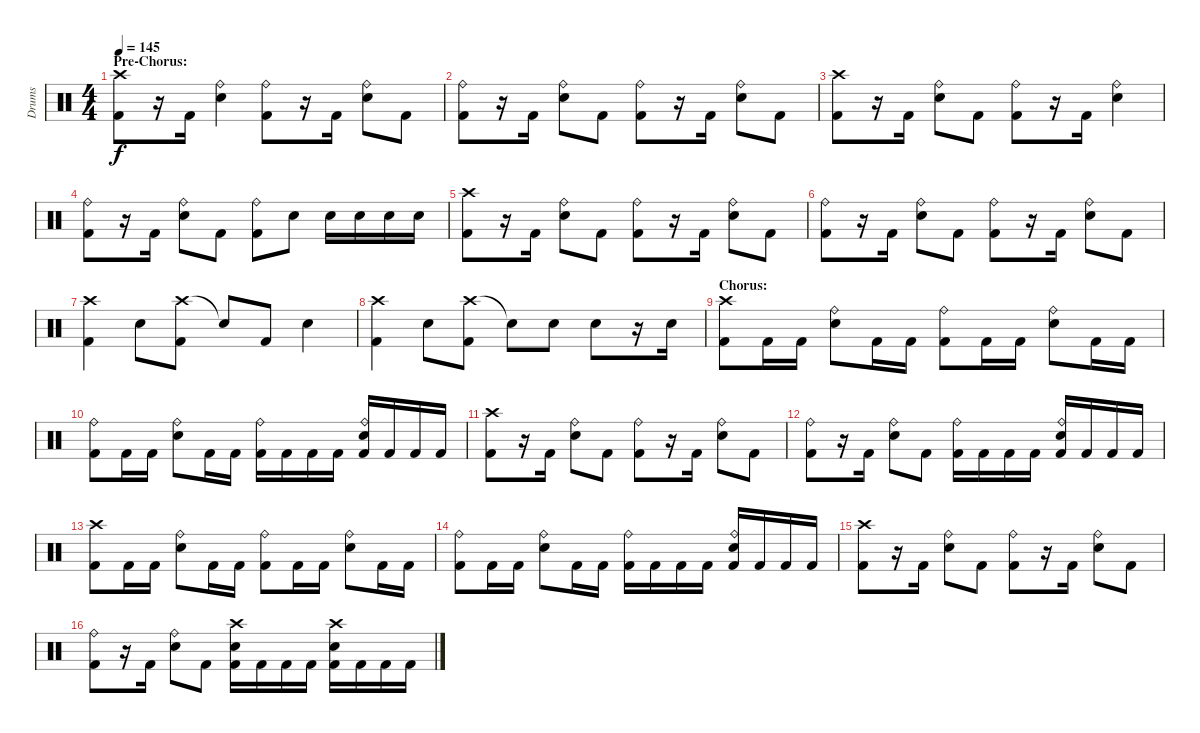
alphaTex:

\track ("Drums" "Drums") {instrument percussion}
\staff {score}
\articulation defaults
\ts (4 4)
\section ("" "Pre-Chorus:")
\tempo 145
\clef neutral
\ks c
("Crash high (hit)" "Kick (hit) 2").8{dy f} r.16 "Kick (hit) 2".16 ("Ride (bell)" "Snare (hit) 2").4 ("Ride (bell)" "Kick (hit) 2").8 r.16 "Kick (hit) 2".16 ("Ride (bell)" "Snare (hit) 2").8 "Kick (hit) 2".8 |
("Ride (bell)" "Kick (hit) 2").8 r.16 "Kick (hit) 2".16 ("Ride (bell)" "Snare (hit) 2").8 "Kick (hit) 2".8 ("Ride (bell)" "Kick (hit) 2").8 r.16 "Kick (hit) 2".16 ("Ride (bell)" "Snare (hit) 2").8 "Kick (hit) 2".8 |
("Crash high (hit)" "Kick (hit) 2").8 r.16 "Kick (hit) 2".16 ("Ride (bell)" "Snare (hit) 2").8 "Kick (hit) 2".8 ("Ride (bell)" "Kick (hit) 2").8 r.16 "Kick (hit) 2".16 ("Ride (bell)" "Snare (hit) 2").4 |
("Ride (bell)" "Kick (hit) 2").8 r.16 "Kick (hit) 2".16 ("Ride (bell)" "Snare (hit) 2").8 "Kick (hit) 2".8 ("Ride (bell)" "Kick (hit) 2").8 "Snare (hit) 2".8 "Snare (hit) 2".16 "Snare (hit) 2".16 "Snare (hit) 2".16 "Snare (hit) 2".16 |
("Crash high (hit)" "Kick (hit) 2").8 r.16 "Kick (hit) 2".16 ("Ride (bell)" "Snare (hit) 2").8 "Kick (hit) 2".8 ("Ride (bell)" "Kick (hit) 2").8 r.16 "Kick (hit) 2".16 ("Ride (bell)" "Snare (hit) 2").8 "Kick (hit) 2".8 |
("Ride (bell)" "Kick (hit) 2").8 r.16 "Kick (hit) 2".16 ("Ride (bell)" "Snare (hit) 2").8 "Kick (hit) 2".8 ("Ride (bell)" "Kick (hit) 2").8 r.16 "Kick (hit) 2".16 ("Ride (bell)" "Snare (hit) 2").8 "Kick (hit) 2".8 |
("Crash high (hit)" "Kick (hit) 2").4 "Snare (hit) 2".8 ("Crash high (hit)" "Kick (hit) 2").8 "Snare (hit)"{t}.8 "Kick (hit) 2".8 "Snare (hit) 2".4 |
("Crash high (hit)" "Kick (hit) 2").4 "Snare (hit) 2".8 ("Crash high (hit)" "Kick (hit) 2").8 "Snare (hit)"{t}.8 "Snare (hit) 2".8 "Snare (hit) 2".8 r.16 "Snare (hit) 2".16 |
\section ("" "Chorus:")
("Crash high (hit)" "Kick (hit) 2").8 "Kick (hit) 2".16 "Kick (hit) 2".16 ("Ride (bell)" "Snare (hit) 2").8 "Kick (hit) 2".16 "Kick (hit) 2".16 ("Ride (bell)" "Kick (hit) 2").8 "Kick (hit) 2".16 "Kick (hit) 2".16 ("Ride (bell)" "Snare (hit) 2").8 "Kick (hit) 2".16 "Kick (hit) 2".16 |
("Ride (bell)" "Kick (hit) 2").8 "Kick (hit) 2".16 "Kick (hit) 2".16 ("Ride (bell)" "Snare (hit) 2").8 "Kick (hit) 2".16 "Kick (hit) 2".16 ("Ride (bell)" "Kick (hit) 2").16 "Kick (hit) 2".16 "Kick (hit) 2".16 "Kick (hit) 2".16 ("Ride (bell)" "Snare (hit) 2" "Kick (hit) 2").16 "Kick (hit) 2".16 "Kick (hit) 2".16 "Kick (hit) 2".16 |
("Crash high (hit)" "Kick (hit) 2").8 r.16 "Kick (hit) 2".16 ("Ride (bell)" "Snare (hit) 2").8 "Kick (hit) 2".8 ("Ride (bell)" "Kick (hit) 2").8 r.16 "Kick (hit) 2".16 ("Ride (bell)" "Snare (hit) 2").8 "Kick (hit) 2".8 |
("Ride (bell)" "Kick (hit) 2").8 r.16 "Kick (hit) 2".16 ("Ride (bell)" "Snare (hit) 2").8 "Kick (hit) 2".8 ("Ride (bell)" "Kick (hit) 2").16 "Kick (hit) 2".16 "Kick (hit) 2".16 "Kick (hit) 2".16 ("Ride (bell)" "Snare (hit) 2" "Kick (hit) 2").16 "Kick (hit) 2".16 "Kick (hit) 2".16 "Kick (hit) 2".16 |
("Crash high (hit)" "Kick (hit) 2").8 "Kick (hit) 2".16 "Kick (hit) 2".16 ("Ride (bell)" "Snare (hit) 2").8 "Kick (hit) 2".16 "Kick (hit) 2".16 ("Ride (bell)" "Kick (hit) 2").8 "Kick (hit) 2".16 "Kick (hit) 2".16 ("Ride (bell)" "Snare (hit) 2").8 "Kick (hit) 2".16 "Kick (hit) 2".16 |
("Ride (bell)" "Kick (hit) 2").8 "Kick (hit) 2".16 "Kick (hit) 2".16 ("Ride (bell)" "Snare (hit) 2").8 "Kick (hit) 2".16 "Kick (hit) 2".16 ("Ride (bell)" "Kick (hit) 2").16 "Kick (hit) 2".16 "Kick (hit) 2".16 "Kick (hit) 2".16 ("Ride (bell)" "Snare (hit) 2" "Kick (hit) 2").16 "Kick (hit) 2".16 "Kick (hit) 2".16 "Kick (hit) 2".16 |
("Crash high (hit)" "Kick (hit) 2").8 r.16 "Kick (hit) 2".16 ("Ride (bell)" "Snare (hit) 2").8 "Kick (hit) 2".8 ("Ride (bell)" "Kick (hit) 2").8 r.16 "Kick (hit) 2".16 ("Ride (bell)" "Snare (hit) 2").8 "Kick (hit) 2".8 |
("Ride (bell)" "Kick (hit) 2").8 r.16 "Kick (hit) 2".16 ("Ride (bell)" "Snare (hit) 2").8 "Kick (hit) 2".8 ("Crash high (hit)" "Snare (hit) 2" "Kick (hit) 2").16 "Kick (hit) 2".16 "Kick (hit) 2".16 "Kick (hit) 2".16 ("Crash high (hit)" "Snare (hit) 2" "Kick (hit) 2").16 "Kick (hit) 2".16 "Kick (hit) 2".16 "Kick (hit) 2".16
